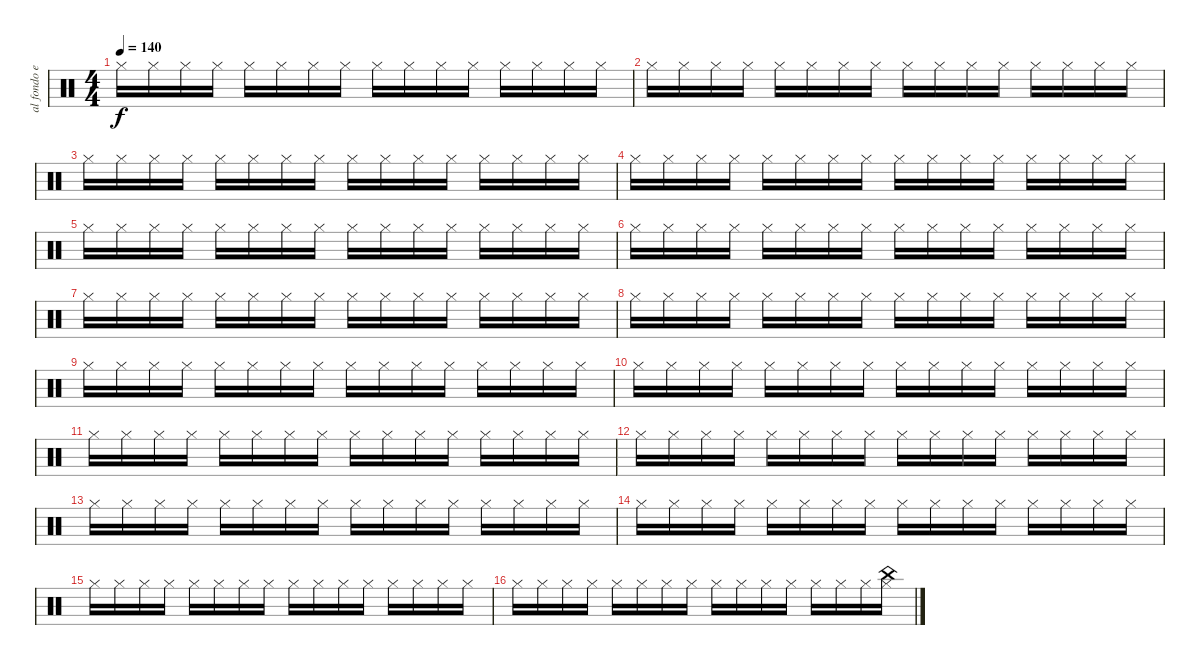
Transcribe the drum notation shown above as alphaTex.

\track ("al fondo en la bateria Mr Pedro Andreu" "al fondo e") {instrument percussion}
\staff {score}
\articulation defaults
\ts (4 4)
\tempo 140
\clef neutral
\ks c "Hi-Hat (closed)".16{dy f} "Hi-Hat (closed)".16 "Hi-Hat (closed)".16 "Hi-Hat (closed)".16 "Hi-Hat (closed)".16 "Hi-Hat (closed)".16 "Hi-Hat (closed)".16 "Hi-Hat (closed)".16 "Hi-Hat (closed)".16 "Hi-Hat (closed)".16 "Hi-Hat (closed)".16 "Hi-Hat (closed)".16 "Hi-Hat (closed)".16 "Hi-Hat (closed)".16 "Hi-Hat (closed)".16 "Hi-Hat (closed)".16
|
"Hi-Hat (closed)".16 "Hi-Hat (closed)".16 "Hi-Hat (closed)".16 "Hi-Hat (closed)".16 "Hi-Hat (closed)".16 "Hi-Hat (closed)".16 "Hi-Hat (closed)".16 "Hi-Hat (closed)".16 "Hi-Hat (closed)".16 "Hi-Hat (closed)".16 "Hi-Hat (closed)".16 "Hi-Hat (closed)".16 "Hi-Hat (closed)".16 "Hi-Hat (closed)".16 "Hi-Hat (closed)".16 "Hi-Hat (closed)".16 |
"Hi-Hat (closed)".16 "Hi-Hat (closed)".16 "Hi-Hat (closed)".16 "Hi-Hat (closed)".16 "Hi-Hat (closed)".16 "Hi-Hat (closed)".16 "Hi-Hat (closed)".16 "Hi-Hat (closed)".16 "Hi-Hat (closed)".16 "Hi-Hat (closed)".16 "Hi-Hat (closed)".16 "Hi-Hat (closed)".16 "Hi-Hat (closed)".16 "Hi-Hat (closed)".16 "Hi-Hat (closed)".16 "Hi-Hat (closed)".16 |
"Hi-Hat (closed)".16 "Hi-Hat (closed)".16 "Hi-Hat (closed)".16 "Hi-Hat (closed)".16 "Hi-Hat (closed)".16 "Hi-Hat (closed)".16 "Hi-Hat (closed)".16 "Hi-Hat (closed)".16 "Hi-Hat (closed)".16 "Hi-Hat (closed)".16 "Hi-Hat (closed)".16 "Hi-Hat (closed)".16 "Hi-Hat (closed)".16 "Hi-Hat (closed)".16 "Hi-Hat (closed)".16 "Hi-Hat (closed)".16 |
"Hi-Hat (closed)".16 "Hi-Hat (closed)".16 "Hi-Hat (closed)".16 "Hi-Hat (closed)".16 "Hi-Hat (closed)".16 "Hi-Hat (closed)".16 "Hi-Hat (closed)".16 "Hi-Hat (closed)".16 "Hi-Hat (closed)".16 "Hi-Hat (closed)".16 "Hi-Hat (closed)".16 "Hi-Hat (closed)".16 "Hi-Hat (closed)".16 "Hi-Hat (closed)".16 "Hi-Hat (closed)".16 "Hi-Hat (closed)".16 |
"Hi-Hat (closed)".16 "Hi-Hat (closed)".16 "Hi-Hat (closed)".16 "Hi-Hat (closed)".16 "Hi-Hat (closed)".16 "Hi-Hat (closed)".16 "Hi-Hat (closed)".16 "Hi-Hat (closed)".16 "Hi-Hat (closed)".16 "Hi-Hat (closed)".16 "Hi-Hat (closed)".16 "Hi-Hat (closed)".16 "Hi-Hat (closed)".16 "Hi-Hat (closed)".16 "Hi-Hat (closed)".16 "Hi-Hat (closed)".16 |
"Hi-Hat (closed)".16 "Hi-Hat (closed)".16 "Hi-Hat (closed)".16 "Hi-Hat (closed)".16 "Hi-Hat (closed)".16 "Hi-Hat (closed)".16 "Hi-Hat (closed)".16 "Hi-Hat (closed)".16 "Hi-Hat (closed)".16 "Hi-Hat (closed)".16 "Hi-Hat (closed)".16 "Hi-Hat (closed)".16 "Hi-Hat (closed)".16 "Hi-Hat (closed)".16 "Hi-Hat (closed)".16 "Hi-Hat (closed)".16 |
"Hi-Hat (closed)".16 "Hi-Hat (closed)".16 "Hi-Hat (closed)".16 "Hi-Hat (closed)".16 "Hi-Hat (closed)".16 "Hi-Hat (closed)".16 "Hi-Hat (closed)".16 "Hi-Hat (closed)".16 "Hi-Hat (closed)".16 "Hi-Hat (closed)".16 "Hi-Hat (closed)".16 "Hi-Hat (closed)".16 "Hi-Hat (closed)".16 "Hi-Hat (closed)".16 "Hi-Hat (closed)".16 "Hi-Hat (closed)".16 |
"Hi-Hat (closed)".16 "Hi-Hat (closed)".16 "Hi-Hat (closed)".16 "Hi-Hat (closed)".16 "Hi-Hat (closed)".16 "Hi-Hat (closed)".16 "Hi-Hat (closed)".16 "Hi-Hat (closed)".16 "Hi-Hat (closed)".16 "Hi-Hat (closed)".16 "Hi-Hat (closed)".16 "Hi-Hat (closed)".16 "Hi-Hat (closed)".16 "Hi-Hat (closed)".16 "Hi-Hat (closed)".16 "Hi-Hat (closed)".16 |
"Hi-Hat (closed)".16 "Hi-Hat (closed)".16 "Hi-Hat (closed)".16 "Hi-Hat (closed)".16 "Hi-Hat (closed)".16 "Hi-Hat (closed)".16 "Hi-Hat (closed)".16 "Hi-Hat (closed)".16 "Hi-Hat (closed)".16 "Hi-Hat (closed)".16 "Hi-Hat (closed)".16 "Hi-Hat (closed)".16 "Hi-Hat (closed)".16 "Hi-Hat (closed)".16 "Hi-Hat (closed)".16 "Hi-Hat (closed)".16 |
"Hi-Hat (closed)".16 "Hi-Hat (closed)".16 "Hi-Hat (closed)".16 "Hi-Hat (closed)".16 "Hi-Hat (closed)".16 "Hi-Hat (closed)".16 "Hi-Hat (closed)".16 "Hi-Hat (closed)".16 "Hi-Hat (closed)".16 "Hi-Hat (closed)".16 "Hi-Hat (closed)".16 "Hi-Hat (closed)".16 "Hi-Hat (closed)".16 "Hi-Hat (closed)".16 "Hi-Hat (closed)".16 "Hi-Hat (closed)".16 |
"Hi-Hat (closed)".16 "Hi-Hat (closed)".16 "Hi-Hat (closed)".16 "Hi-Hat (closed)".16 "Hi-Hat (closed)".16 "Hi-Hat (closed)".16 "Hi-Hat (closed)".16 "Hi-Hat (closed)".16 "Hi-Hat (closed)".16 "Hi-Hat (closed)".16 "Hi-Hat (closed)".16 "Hi-Hat (closed)".16 "Hi-Hat (closed)".16 "Hi-Hat (closed)".16 "Hi-Hat (closed)".16 "Hi-Hat (closed)".16 |
"Hi-Hat (closed)".16 "Hi-Hat (closed)".16 "Hi-Hat (closed)".16 "Hi-Hat (closed)".16 "Hi-Hat (closed)".16 "Hi-Hat (closed)".16 "Hi-Hat (closed)".16 "Hi-Hat (closed)".16 "Hi-Hat (closed)".16 "Hi-Hat (closed)".16 "Hi-Hat (closed)".16 "Hi-Hat (closed)".16 "Hi-Hat (closed)".16 "Hi-Hat (closed)".16 "Hi-Hat (closed)".16 "Hi-Hat (closed)".16 |
"Hi-Hat (closed)".16 "Hi-Hat (closed)".16 "Hi-Hat (closed)".16 "Hi-Hat (closed)".16 "Hi-Hat (closed)".16 "Hi-Hat (closed)".16 "Hi-Hat (closed)".16 "Hi-Hat (closed)".16 "Hi-Hat (closed)".16 "Hi-Hat (closed)".16 "Hi-Hat (closed)".16 "Hi-Hat (closed)".16 "Hi-Hat (closed)".16 "Hi-Hat (closed)".16 "Hi-Hat (closed)".16 "Hi-Hat (closed)".16 |
"Hi-Hat (closed)".16 "Hi-Hat (closed)".16 "Hi-Hat (closed)".16 "Hi-Hat (closed)".16 "Hi-Hat (closed)".16 "Hi-Hat (closed)".16 "Hi-Hat (closed)".16 "Hi-Hat (closed)".16 "Hi-Hat (closed)".16 "Hi-Hat (closed)".16 "Hi-Hat (closed)".16 "Hi-Hat (closed)".16 "Hi-Hat (closed)".16 "Hi-Hat (closed)".16 "Hi-Hat (closed)".16 "Hi-Hat (closed)".16 |
"Hi-Hat (closed)".16 "Hi-Hat (closed)".16 "Hi-Hat (closed)".16 "Hi-Hat (closed)".16 "Hi-Hat (closed)".16 "Hi-Hat (closed)".16 "Hi-Hat (closed)".16 "Hi-Hat (closed)".16 "Hi-Hat (closed)".16 "Hi-Hat (closed)".16 "Hi-Hat (closed)".16 "Hi-Hat (closed)".16 "Hi-Hat (closed)".16 "Hi-Hat (closed)".16 "Hi-Hat (closed)".16 ("Hi-Hat (closed)" "China (hit)").16
